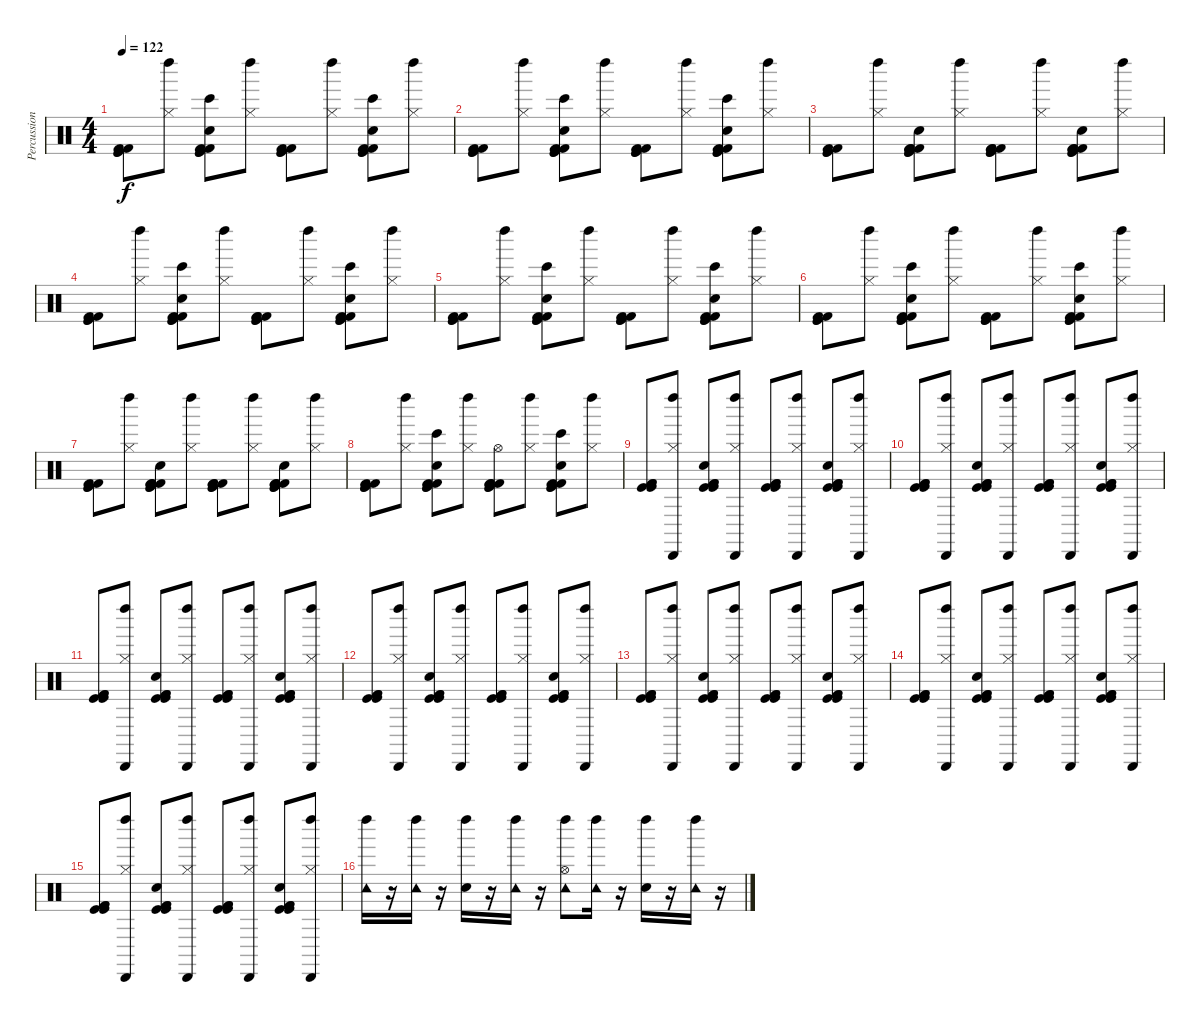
\track ("Percussion" "Percussion") {instrument percussion}
\staff {score}
\articulation defaults
\ts (4 4)
\tempo 122
\clef neutral
\ks c
("Kick (hit)" "Kick (hit)" "Kick (hit) 2" "Kick (hit) 2").8{dy f} ("Hi-Hat (closed)" "Left Maraca (hit)").8 ("Kick (hit)" "Kick (hit)" "Kick (hit) 2" "Hand Clap (hit)" "Kick (hit) 2" "Bongo High (hit)").8 ("Hi-Hat (closed)" "Left Maraca (hit)").8 ("Kick (hit)" "Kick (hit)" "Kick (hit) 2" "Kick (hit) 2").8 ("Hi-Hat (closed)" "Left Maraca (hit)").8 ("Kick (hit)" "Kick (hit)" "Kick (hit) 2" "Hand Clap (hit)" "Kick (hit) 2" "Bongo High (hit)").8 ("Hi-Hat (closed)" "Left Maraca (hit)").8 |
("Kick (hit)" "Kick (hit)" "Kick (hit) 2" "Kick (hit) 2").8 ("Hi-Hat (closed)" "Left Maraca (hit)").8 ("Kick (hit)" "Kick (hit)" "Kick (hit) 2" "Hand Clap (hit)" "Kick (hit) 2" "Bongo High (hit)").8 ("Hi-Hat (closed)" "Left Maraca (hit)").8 ("Kick (hit)" "Kick (hit)" "Kick (hit) 2" "Kick (hit) 2").8 ("Hi-Hat (closed)" "Left Maraca (hit)").8 ("Kick (hit)" "Kick (hit)" "Kick (hit) 2" "Hand Clap (hit)" "Kick (hit) 2" "Bongo High (hit)").8 ("Hi-Hat (closed)" "Left Maraca (hit)").8 |
("Kick (hit)" "Kick (hit)" "Kick (hit) 2" "Kick (hit) 2").8 ("Hi-Hat (closed)" "Left Maraca (hit)").8 ("Kick (hit)" "Kick (hit)" "Kick (hit) 2" "Kick (hit) 2" "Hand Clap (hit)" "Kick (hit) 2").8 ("Hi-Hat (closed)" "Left Maraca (hit)").8 ("Kick (hit)" "Kick (hit)" "Kick (hit) 2" "Kick (hit) 2" "Kick (hit) 2").8 ("Hi-Hat (closed)" "Left Maraca (hit)").8 ("Kick (hit)" "Kick (hit)" "Kick (hit) 2" "Kick (hit) 2" "Hand Clap (hit)" "Kick (hit) 2").8 ("Hi-Hat (closed)" "Left Maraca (hit)").8 |
("Kick (hit)" "Kick (hit)" "Kick (hit) 2" "Kick (hit) 2").8 ("Hi-Hat (closed)" "Left Maraca (hit)").8 ("Bongo High (hit)" "Kick (hit)" "Kick (hit)" "Kick (hit) 2" "Kick (hit) 2" "Hand Clap (hit)").8 ("Hi-Hat (closed)" "Left Maraca (hit)").8 ("Kick (hit)" "Kick (hit)" "Kick (hit) 2" "Kick (hit) 2" "Kick (hit) 2").8 ("Hi-Hat (closed)" "Left Maraca (hit)").8 ("Bongo High (hit)" "Kick (hit)" "Kick (hit)" "Kick (hit) 2" "Kick (hit) 2" "Hand Clap (hit)").8 ("Hi-Hat (closed)" "Left Maraca (hit)").8 |
("Kick (hit)" "Kick (hit)" "Kick (hit) 2" "Kick (hit) 2").8 ("Hi-Hat (closed)" "Left Maraca (hit)").8 ("Kick (hit)" "Kick (hit)" "Kick (hit) 2" "Hand Clap (hit)" "Kick (hit) 2" "Bongo High (hit)").8 ("Hi-Hat (closed)" "Left Maraca (hit)").8 ("Kick (hit)" "Kick (hit)" "Kick (hit) 2" "Kick (hit) 2").8 ("Hi-Hat (closed)" "Left Maraca (hit)").8 ("Kick (hit)" "Kick (hit)" "Kick (hit) 2" "Hand Clap (hit)" "Kick (hit) 2" "Bongo High (hit)").8 ("Hi-Hat (closed)" "Left Maraca (hit)").8 |
("Kick (hit)" "Kick (hit)" "Kick (hit) 2" "Kick (hit) 2").8 ("Hi-Hat (closed)" "Left Maraca (hit)").8 ("Kick (hit)" "Kick (hit)" "Kick (hit) 2" "Hand Clap (hit)" "Kick (hit) 2" "Bongo High (hit)").8 ("Hi-Hat (closed)" "Left Maraca (hit)").8 ("Kick (hit)" "Kick (hit)" "Kick (hit) 2" "Kick (hit) 2").8 ("Hi-Hat (closed)" "Left Maraca (hit)").8 ("Kick (hit)" "Kick (hit)" "Kick (hit) 2" "Hand Clap (hit)" "Kick (hit) 2" "Bongo High (hit)").8 ("Hi-Hat (closed)" "Left Maraca (hit)").8 |
("Kick (hit)" "Kick (hit)" "Kick (hit) 2" "Kick (hit) 2").8 ("Hi-Hat (closed)" "Left Maraca (hit)").8 ("Kick (hit)" "Kick (hit)" "Kick (hit) 2" "Kick (hit) 2" "Hand Clap (hit)" "Kick (hit) 2").8 ("Hi-Hat (closed)" "Left Maraca (hit)").8 ("Kick (hit)" "Kick (hit)" "Kick (hit) 2" "Kick (hit) 2" "Kick (hit) 2").8 ("Hi-Hat (closed)" "Left Maraca (hit)").8 ("Kick (hit)" "Kick (hit)" "Kick (hit) 2" "Kick (hit) 2" "Hand Clap (hit)" "Kick (hit) 2").8 ("Hi-Hat (closed)" "Left Maraca (hit)").8 |
("Kick (hit)" "Kick (hit)" "Kick (hit) 2" "Kick (hit) 2").8 ("Hi-Hat (closed)" "Left Maraca (hit)").8 ("Bongo High (hit)" "Kick (hit)" "Kick (hit)" "Kick (hit) 2" "Kick (hit) 2" "Hand Clap (hit)").8 ("Hi-Hat (closed)" "Left Maraca (hit)").8 ("Hi-Hat (open)" "Kick (hit)" "Kick (hit)" "Kick (hit) 2" "Kick (hit) 2" "Kick (hit) 2").8 ("Hi-Hat (closed)" "Left Maraca (hit)").8 ("Bongo High (hit)" "Kick (hit)" "Kick (hit)" "Kick (hit) 2" "Kick (hit) 2" "Hand Clap (hit)").8 ("Hi-Hat (closed)" "Left Maraca (hit)").8 |
("Kick (hit)" "Kick (hit)" "Kick (hit) 2" "Kick (hit) 2").8 ("Cabasa (hit)" "Left Maraca (hit)" "Hi-Hat (closed)").8 ("Hand Clap (hit)" "Kick (hit)" "Kick (hit)" "Kick (hit) 2" "Kick (hit) 2").8 ("Cabasa (hit)" "Left Maraca (hit)" "Hi-Hat (closed)").8 ("Kick (hit)" "Kick (hit) 2" "Kick (hit) 2" "Kick (hit)").8 ("Cabasa (hit)" "Left Maraca (hit)" "Hi-Hat (closed)").8 ("Hand Clap (hit)" "Kick (hit) 2" "Kick (hit)" "Kick (hit) 2" "Kick (hit)").8 ("Cabasa (hit)" "Left Maraca (hit)" "Hi-Hat (closed)").8 |
("Kick (hit)" "Kick (hit)" "Kick (hit) 2" "Kick (hit) 2").8 ("Cabasa (hit)" "Left Maraca (hit)" "Hi-Hat (closed)").8 ("Hand Clap (hit)" "Kick (hit)" "Kick (hit)" "Kick (hit) 2" "Kick (hit) 2").8 ("Cabasa (hit)" "Left Maraca (hit)" "Hi-Hat (closed)").8 ("Kick (hit)" "Kick (hit) 2" "Kick (hit) 2" "Kick (hit)").8 ("Cabasa (hit)" "Left Maraca (hit)" "Hi-Hat (closed)").8 ("Hand Clap (hit)" "Kick (hit) 2" "Kick (hit)" "Kick (hit) 2" "Kick (hit)").8 ("Cabasa (hit)" "Left Maraca (hit)" "Hi-Hat (closed)").8 |
("Kick (hit)" "Kick (hit)" "Kick (hit) 2" "Kick (hit) 2").8 ("Cabasa (hit)" "Left Maraca (hit)" "Hi-Hat (closed)").8 ("Hand Clap (hit)" "Kick (hit)" "Kick (hit)" "Kick (hit) 2" "Kick (hit) 2").8 ("Cabasa (hit)" "Left Maraca (hit)" "Hi-Hat (closed)").8 ("Kick (hit)" "Kick (hit) 2" "Kick (hit) 2" "Kick (hit)").8 ("Cabasa (hit)" "Left Maraca (hit)" "Hi-Hat (closed)").8 ("Hand Clap (hit)" "Kick (hit) 2" "Kick (hit)" "Kick (hit) 2" "Kick (hit)").8 ("Cabasa (hit)" "Left Maraca (hit)" "Hi-Hat (closed)").8 |
("Kick (hit)" "Kick (hit)" "Kick (hit) 2" "Kick (hit) 2").8 ("Cabasa (hit)" "Left Maraca (hit)" "Hi-Hat (closed)").8 ("Hand Clap (hit)" "Kick (hit)" "Kick (hit)" "Kick (hit) 2" "Kick (hit) 2").8 ("Cabasa (hit)" "Left Maraca (hit)" "Hi-Hat (closed)").8 ("Kick (hit)" "Kick (hit) 2" "Kick (hit) 2" "Kick (hit)").8 ("Cabasa (hit)" "Left Maraca (hit)" "Hi-Hat (closed)").8 ("Hand Clap (hit)" "Kick (hit) 2" "Kick (hit)" "Kick (hit) 2" "Kick (hit)").8 ("Cabasa (hit)" "Left Maraca (hit)" "Hi-Hat (closed)").8 |
("Kick (hit)" "Kick (hit)" "Kick (hit) 2" "Kick (hit) 2").8 ("Cabasa (hit)" "Left Maraca (hit)" "Hi-Hat (closed)").8 ("Hand Clap (hit)" "Kick (hit)" "Kick (hit)" "Kick (hit) 2" "Kick (hit) 2").8 ("Cabasa (hit)" "Left Maraca (hit)" "Hi-Hat (closed)").8 ("Kick (hit)" "Kick (hit) 2" "Kick (hit) 2" "Kick (hit)").8 ("Cabasa (hit)" "Left Maraca (hit)" "Hi-Hat (closed)").8 ("Hand Clap (hit)" "Kick (hit) 2" "Kick (hit)" "Kick (hit) 2" "Kick (hit)").8 ("Cabasa (hit)" "Left Maraca (hit)" "Hi-Hat (closed)").8 |
("Kick (hit)" "Kick (hit)" "Kick (hit) 2" "Kick (hit) 2").8 ("Cabasa (hit)" "Left Maraca (hit)" "Hi-Hat (closed)").8 ("Hand Clap (hit)" "Kick (hit)" "Kick (hit)" "Kick (hit) 2" "Kick (hit) 2").8 ("Cabasa (hit)" "Left Maraca (hit)" "Hi-Hat (closed)").8 ("Kick (hit)" "Kick (hit) 2" "Kick (hit) 2" "Kick (hit)").8 ("Cabasa (hit)" "Left Maraca (hit)" "Hi-Hat (closed)").8 ("Hand Clap (hit)" "Kick (hit) 2" "Kick (hit)" "Kick (hit) 2" "Kick (hit)").8 ("Cabasa (hit)" "Left Maraca (hit)" "Hi-Hat (closed)").8 |
("Kick (hit)" "Kick (hit)" "Kick (hit) 2" "Kick (hit) 2").8 ("Cabasa (hit)" "Left Maraca (hit)" "Hi-Hat (closed)").8 ("Hand Clap (hit)" "Kick (hit)" "Kick (hit)" "Kick (hit) 2" "Kick (hit) 2").8 ("Cabasa (hit)" "Left Maraca (hit)" "Hi-Hat (closed)").8 ("Kick (hit)" "Kick (hit) 2" "Kick (hit) 2" "Kick (hit)").8 ("Cabasa (hit)" "Left Maraca (hit)" "Hi-Hat (closed)").8 ("Hand Clap (hit)" "Kick (hit) 2" "Kick (hit)" "Kick (hit) 2" "Kick (hit)").8 ("Cabasa (hit)" "Left Maraca (hit)" "Hi-Hat (closed)").8 |
("Tambourine (hit)" "Left Maraca (hit)").16 r.16 ("Tambourine (hit)" "Left Maraca (hit)").16 r.16 ("Hand Clap (hit)" "Left Maraca (hit)").16 r.16 ("Tambourine (hit)" "Left Maraca (hit)").16 r.16 ("Hi-Hat (open)" "Tambourine (hit)" "Left Maraca (hit)").8 ("Tambourine (hit)" "Left Maraca (hit)").16 r.16 ("Hand Clap (hit)" "Left Maraca (hit)").16 r.16 ("Tambourine (hit)" "Left Maraca (hit)").16 r.16
